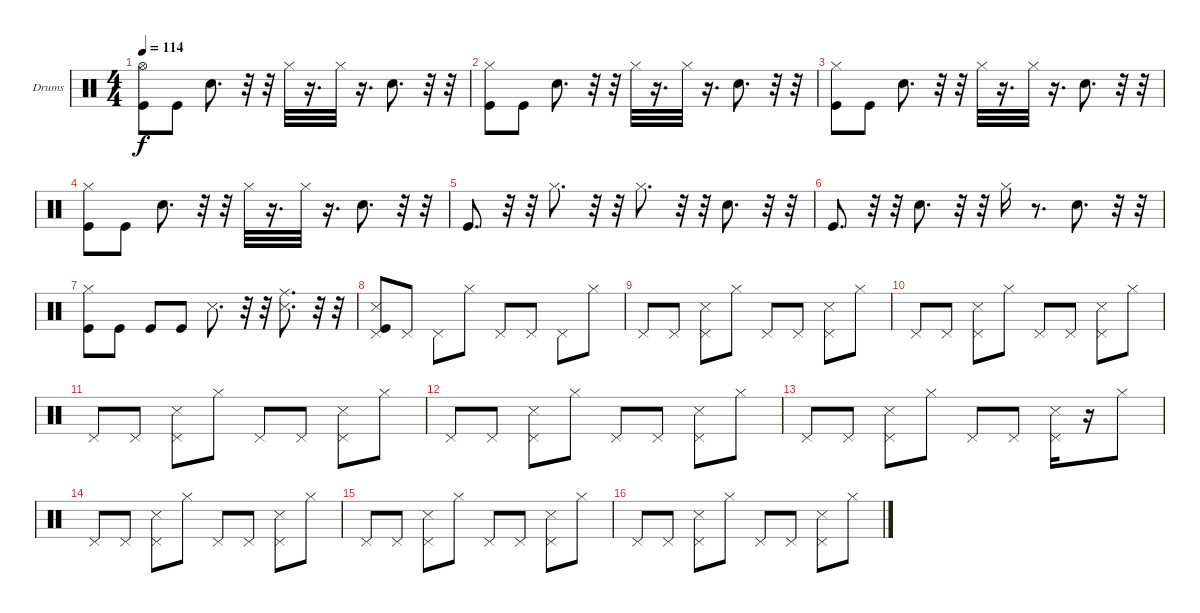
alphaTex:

\bracketExtendMode groupsimilarinstruments
\firstSystemTrackNameOrientation horizontal
\otherSystemsTrackNameOrientation horizontal
\track ("Drumkit" "Drums") {instrument percussion}
\staff {score}
\articulation defaults
\ts (4 4)
\tempo 114
\clef neutral
\ks c
("Kick (hit)" "Hi-Hat (open)").8{dy f} "Kick (hit)".8 "Snare (hit) 2".8{d} r.32 r.32 "Hi-Hat (closed)".32 r.16{d} "Hi-Hat (closed)".32 r.16{d} "Snare (hit) 2".8{d} r.32 r.32 |
("Kick (hit)" "Hi-Hat (closed)").8 "Kick (hit)".8 "Snare (hit) 2".8{d} r.32 r.32 "Hi-Hat (closed)".32 r.16{d} "Hi-Hat (closed)".32 r.16{d} "Snare (hit) 2".8{d} r.32 r.32 |
("Kick (hit)" "Hi-Hat (closed)").8 "Kick (hit)".8 "Snare (hit) 2".8{d} r.32 r.32 "Hi-Hat (closed)".32 r.16{d} "Hi-Hat (closed)".32 r.16{d} "Snare (hit) 2".8{d} r.32 r.32 |
("Kick (hit)" "Hi-Hat (closed)").8 "Kick (hit)".8 "Snare (hit) 2".8{d} r.32 r.32 "Hi-Hat (closed)".32 r.16{d} "Hi-Hat (closed)".32 r.16{d} "Snare (hit) 2".8{d} r.32 r.32 |
"Kick (hit)".8{d} r.32 r.32 "Hi-Hat (closed)".8{d} r.32 r.32 "Hi-Hat (closed)".8{d} r.32 r.32 "Snare (hit) 2".8{d} r.32 r.32 |
"Kick (hit)".8{d} r.32 r.32 "Snare (hit) 2".8{d} r.32 r.32 "Hi-Hat (closed)".16 r.8{d} "Snare (hit) 2".8{d} r.32 r.32 |
("Kick (hit)" "Hi-Hat (closed)").8 "Kick (hit)".8 "Kick (hit)".8 "Kick (hit)".8 "Snare (side stick) 3".8{d} r.32 r.32 ("Snare (side stick) 3" "Ride (middle)").8{d} r.32 r.32 |
("Snare (side stick) 3" "Kick (hit)" "Pedal Hi-Hat (hit)").8 "Pedal Hi-Hat (hit)".8 "Pedal Hi-Hat (hit)".8 "Hi-Hat (closed)".8 "Pedal Hi-Hat (hit)".8 "Pedal Hi-Hat (hit)".8 "Pedal Hi-Hat (hit)".8 "Hi-Hat (closed)".8 |
"Pedal Hi-Hat (hit)".8 "Pedal Hi-Hat (hit)".8 ("Snare (side stick) 3" "Pedal Hi-Hat (hit)").8 "Hi-Hat (closed)".8 "Pedal Hi-Hat (hit)".8 "Pedal Hi-Hat (hit)".8 ("Snare (side stick) 3" "Pedal Hi-Hat (hit)").8 "Hi-Hat (closed)".8 |
"Pedal Hi-Hat (hit)".8 "Pedal Hi-Hat (hit)".8 ("Snare (side stick) 3" "Pedal Hi-Hat (hit)").8 "Hi-Hat (closed)".8 "Pedal Hi-Hat (hit)".8 "Pedal Hi-Hat (hit)".8 ("Snare (side stick) 3" "Pedal Hi-Hat (hit)").8 "Hi-Hat (closed)".8 |
"Pedal Hi-Hat (hit)".8 "Pedal Hi-Hat (hit)".8 ("Snare (side stick) 3" "Pedal Hi-Hat (hit)").8 "Hi-Hat (closed)".8 "Pedal Hi-Hat (hit)".8 "Pedal Hi-Hat (hit)".8 ("Snare (side stick) 3" "Pedal Hi-Hat (hit)").8 "Hi-Hat (closed)".8 |
"Pedal Hi-Hat (hit)".8 "Pedal Hi-Hat (hit)".8 ("Snare (side stick) 3" "Pedal Hi-Hat (hit)").8 "Hi-Hat (closed)".8 "Pedal Hi-Hat (hit)".8 "Pedal Hi-Hat (hit)".8 ("Snare (side stick) 3" "Pedal Hi-Hat (hit)").8 "Hi-Hat (closed)".8 |
"Pedal Hi-Hat (hit)".8 "Pedal Hi-Hat (hit)".8 ("Snare (side stick) 3" "Pedal Hi-Hat (hit)").8 "Hi-Hat (closed)".8 "Pedal Hi-Hat (hit)".8 "Pedal Hi-Hat (hit)".8 ("Snare (side stick) 3" "Pedal Hi-Hat (hit)").16 r.16 "Hi-Hat (closed)".8 |
"Pedal Hi-Hat (hit)".8 "Pedal Hi-Hat (hit)".8 ("Snare (side stick) 3" "Pedal Hi-Hat (hit)").8 "Hi-Hat (closed)".8 "Pedal Hi-Hat (hit)".8 "Pedal Hi-Hat (hit)".8 ("Snare (side stick) 3" "Pedal Hi-Hat (hit)").8 "Hi-Hat (closed)".8 |
"Pedal Hi-Hat (hit)".8 "Pedal Hi-Hat (hit)".8 ("Snare (side stick) 3" "Pedal Hi-Hat (hit)").8 "Hi-Hat (closed)".8 "Pedal Hi-Hat (hit)".8 "Pedal Hi-Hat (hit)".8 ("Snare (side stick) 3" "Pedal Hi-Hat (hit)").8 "Hi-Hat (closed)".8 |
"Pedal Hi-Hat (hit)".8 "Pedal Hi-Hat (hit)".8 ("Snare (side stick) 3" "Pedal Hi-Hat (hit)").8 "Hi-Hat (closed)".8 "Pedal Hi-Hat (hit)".8 "Pedal Hi-Hat (hit)".8 ("Snare (side stick) 3" "Pedal Hi-Hat (hit)").8 "Hi-Hat (closed)".8
